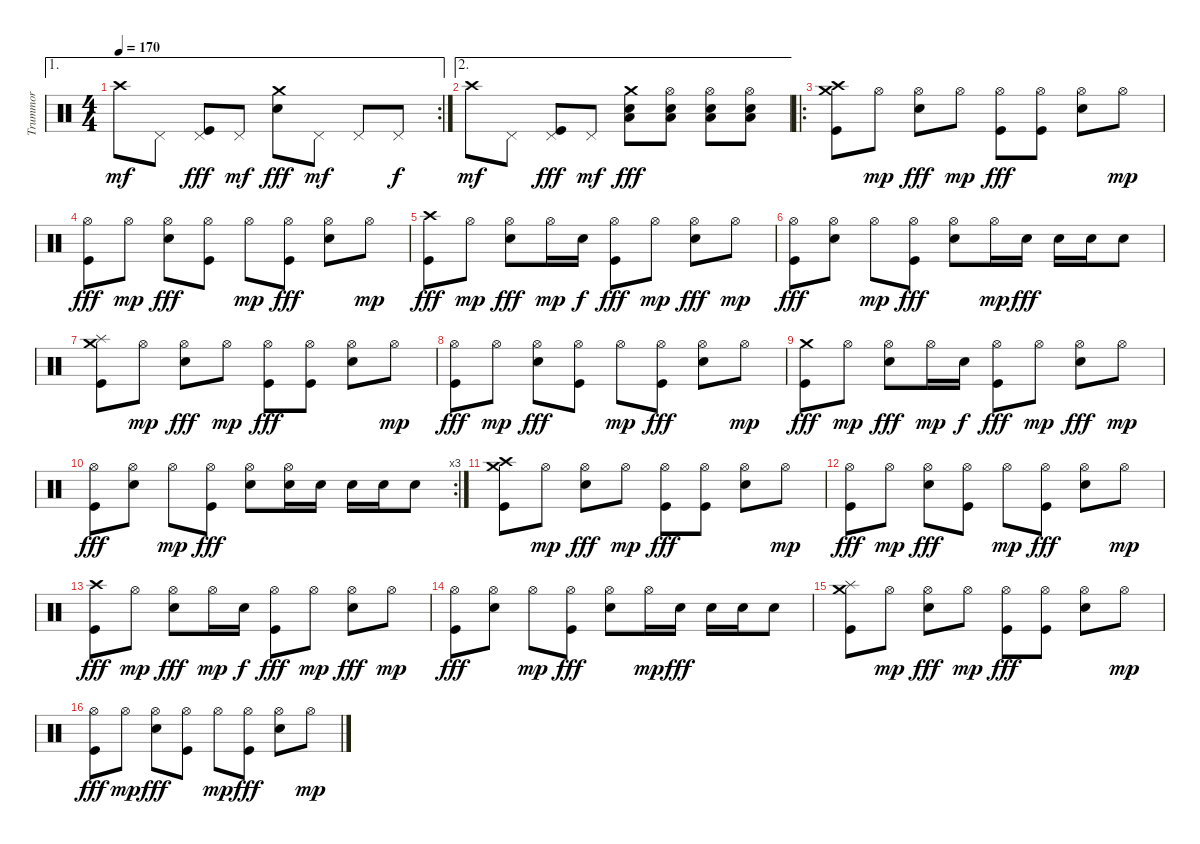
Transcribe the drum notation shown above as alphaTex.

\track ("Trummor" "Trummor") {instrument percussion}
\staff {score}
\articulation defaults
\ae 1
\rc 2
\ts (4 4)
\tempo 170
\clef neutral
\ks c "Crash high (hit)".8{dy mf} "Pedal Hi-Hat (hit)".8
("Pedal Hi-Hat (hit)" "Kick (hit)").8{dy fff} "Pedal Hi-Hat (hit)".8{dy mf} ("Crash medium (hit)" "Electric Snare (hit)").8{dy fff} "Pedal Hi-Hat (hit)".8{dy mf} "Pedal Hi-Hat (hit)".8 "Pedal Hi-Hat (hit)".8{dy f} |
\ae 2 "Crash high (hit)".8{dy mf} "Pedal Hi-Hat (hit)".8
("Pedal Hi-Hat (hit)" "Kick (hit)").8{dy fff} "Pedal Hi-Hat (hit)".8{dy mf} ("Crash medium (hit)" "Electric Snare (hit)" "Low Floor Tom (hit)").8{dy fff} ("Hi-Hat (open)" "Electric Snare (hit)" "Low Floor Tom (hit)").8 ("Hi-Hat (open)" "Electric Snare (hit)" "Low Floor Tom (hit)").8 ("Hi-Hat (open)" "Electric Snare (hit)" "Low Floor Tom (hit)").8 |
\ro
("Crash medium (hit)" "Crash high (hit)" "Kick (hit)").8 "Hi-Hat (open)".8{dy mp} ("Hi-Hat (open)" "Electric Snare (hit)").8{dy fff} "Hi-Hat (open)".8{dy mp} ("Hi-Hat (open)" "Kick (hit)").8{dy fff} ("Hi-Hat (open)" "Kick (hit)").8 ("Hi-Hat (open)" "Electric Snare (hit)").8 "Hi-Hat (open)".8{dy mp} |
("Hi-Hat (open)" "Kick (hit)").8{dy fff} "Hi-Hat (open)".8{dy mp} ("Hi-Hat (open)" "Electric Snare (hit)").8{dy fff} ("Hi-Hat (open)" "Kick (hit)").8 "Hi-Hat (open)".8{dy mp} ("Hi-Hat (open)" "Kick (hit)").8{dy fff} ("Hi-Hat (open)" "Electric Snare (hit)").8 "Hi-Hat (open)".8{dy mp} |
("Crash high (hit)" "Kick (hit)").8{dy fff} "Hi-Hat (open)".8{dy mp} ("Hi-Hat (open)" "Electric Snare (hit)").8{dy fff} "Hi-Hat (open)".16{dy mp} "Electric Snare (hit)".16{dy f} ("Hi-Hat (open)" "Kick (hit)").8{dy fff} "Hi-Hat (open)".8{dy mp} ("Hi-Hat (open)" "Electric Snare (hit)").8{dy fff} "Hi-Hat (open)".8{dy mp} |
("Hi-Hat (open)" "Kick (hit)").8{dy fff} ("Hi-Hat (open)" "Electric Snare (hit)").8 "Hi-Hat (open)".8{dy mp} ("Hi-Hat (open)" "Kick (hit)").8{dy fff} ("Hi-Hat (open)" "Electric Snare (hit)").8 "Hi-Hat (open)".16{dy mp} "Electric Snare (hit)".16{dy fff} "Electric Snare (hit)".16 "Electric Snare (hit)".16 "Electric Snare (hit)".8 |
("Crash medium (hit)" "Splash (hit)" "Kick (hit)").8 "Hi-Hat (open)".8{dy mp} ("Hi-Hat (open)" "Electric Snare (hit)").8{dy fff} "Hi-Hat (open)".8{dy mp} ("Hi-Hat (open)" "Kick (hit)").8{dy fff} ("Hi-Hat (open)" "Kick (hit)").8 ("Hi-Hat (open)" "Electric Snare (hit)").8 "Hi-Hat (open)".8{dy mp} |
("Hi-Hat (open)" "Kick (hit)").8{dy fff} "Hi-Hat (open)".8{dy mp} ("Hi-Hat (open)" "Electric Snare (hit)").8{dy fff} ("Hi-Hat (open)" "Kick (hit)").8 "Hi-Hat (open)".8{dy mp} ("Hi-Hat (open)" "Kick (hit)").8{dy fff} ("Hi-Hat (open)" "Electric Snare (hit)").8 "Hi-Hat (open)".8{dy mp} |
("Crash medium (hit)" "Kick (hit)").8{dy fff} "Hi-Hat (open)".8{dy mp} ("Hi-Hat (open)" "Electric Snare (hit)").8{dy fff} "Hi-Hat (open)".16{dy mp} "Electric Snare (hit)".16{dy f} ("Hi-Hat (open)" "Kick (hit)").8{dy fff} "Hi-Hat (open)".8{dy mp} ("Hi-Hat (open)" "Electric Snare (hit)").8{dy fff} "Hi-Hat (open)".8{dy mp} |
\rc 3
("Hi-Hat (open)" "Kick (hit)").8{dy fff} ("Hi-Hat (open)" "Electric Snare (hit)").8 "Hi-Hat (open)".8{dy mp} ("Hi-Hat (open)" "Kick (hit)").8{dy fff} ("Hi-Hat (open)" "Electric Snare (hit)").8 ("Hi-Hat (open)" "Electric Snare (hit)").16 "Electric Snare (hit)".16 "Electric Snare (hit)".16 "Electric Snare (hit)".16 "Electric Snare (hit)".8 |
("Crash medium (hit)" "Crash high (hit)" "Kick (hit)").8 "Hi-Hat (open)".8{dy mp} ("Hi-Hat (open)" "Electric Snare (hit)").8{dy fff} "Hi-Hat (open)".8{dy mp} ("Hi-Hat (open)" "Kick (hit)").8{dy fff} ("Hi-Hat (open)" "Kick (hit)").8 ("Hi-Hat (open)" "Electric Snare (hit)").8 "Hi-Hat (open)".8{dy mp} |
("Hi-Hat (open)" "Kick (hit)").8{dy fff} "Hi-Hat (open)".8{dy mp} ("Hi-Hat (open)" "Electric Snare (hit)").8{dy fff} ("Hi-Hat (open)" "Kick (hit)").8 "Hi-Hat (open)".8{dy mp} ("Hi-Hat (open)" "Kick (hit)").8{dy fff} ("Hi-Hat (open)" "Electric Snare (hit)").8 "Hi-Hat (open)".8{dy mp} |
("Crash high (hit)" "Kick (hit)").8{dy fff} "Hi-Hat (open)".8{dy mp} ("Hi-Hat (open)" "Electric Snare (hit)").8{dy fff} "Hi-Hat (open)".16{dy mp} "Electric Snare (hit)".16{dy f} ("Hi-Hat (open)" "Kick (hit)").8{dy fff} "Hi-Hat (open)".8{dy mp} ("Hi-Hat (open)" "Electric Snare (hit)").8{dy fff} "Hi-Hat (open)".8{dy mp} |
("Hi-Hat (open)" "Kick (hit)").8{dy fff} ("Hi-Hat (open)" "Electric Snare (hit)").8 "Hi-Hat (open)".8{dy mp} ("Hi-Hat (open)" "Kick (hit)").8{dy fff} ("Hi-Hat (open)" "Electric Snare (hit)").8 "Hi-Hat (open)".16{dy mp} "Electric Snare (hit)".16{dy fff} "Electric Snare (hit)".16 "Electric Snare (hit)".16 "Electric Snare (hit)".8 |
("Crash medium (hit)" "Splash (hit)" "Kick (hit)").8 "Hi-Hat (open)".8{dy mp} ("Hi-Hat (open)" "Electric Snare (hit)").8{dy fff} "Hi-Hat (open)".8{dy mp} ("Hi-Hat (open)" "Kick (hit)").8{dy fff} ("Hi-Hat (open)" "Kick (hit)").8 ("Hi-Hat (open)" "Electric Snare (hit)").8 "Hi-Hat (open)".8{dy mp} |
("Hi-Hat (open)" "Kick (hit)").8{dy fff} "Hi-Hat (open)".8{dy mp} ("Hi-Hat (open)" "Electric Snare (hit)").8{dy fff} ("Hi-Hat (open)" "Kick (hit)").8 "Hi-Hat (open)".8{dy mp} ("Hi-Hat (open)" "Kick (hit)").8{dy fff} ("Hi-Hat (open)" "Electric Snare (hit)").8 "Hi-Hat (open)".8{dy mp}
